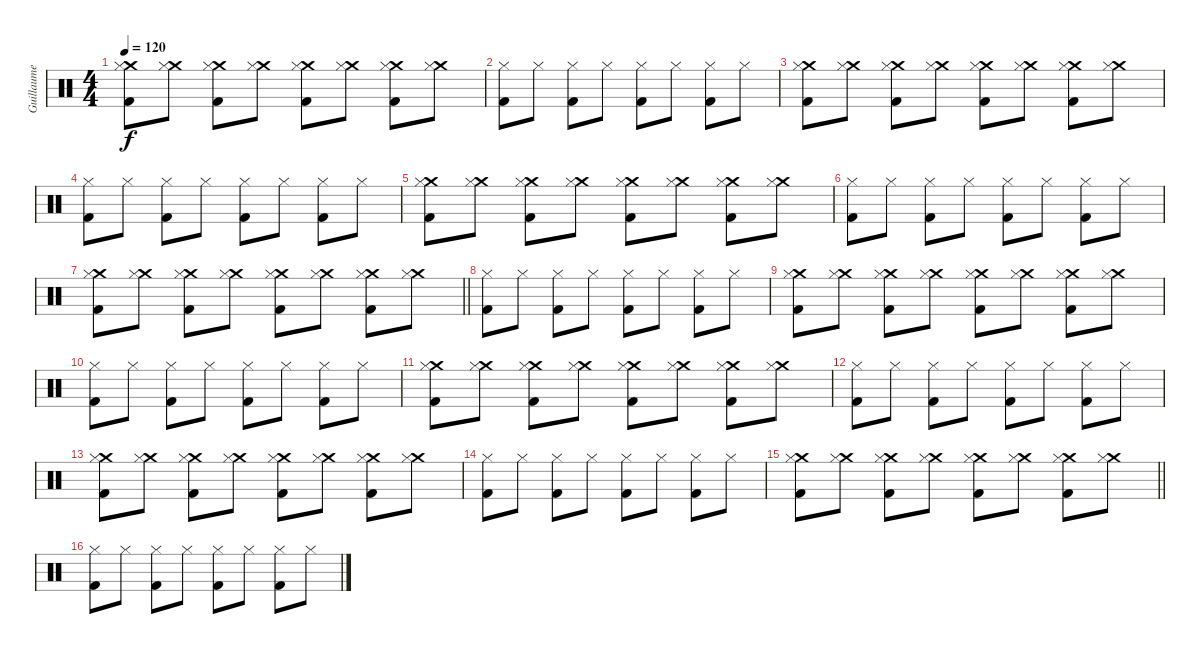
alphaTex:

\track ("Guillaume (batterie)" "Guillaume ") {instrument percussion}
\staff {score}
\articulation defaults
\ts (4 4)
\tempo 120
\clef neutral
\ks c
("Crash medium (hit)" "Hi-Hat (closed)" "Kick (hit) 2").8{dy f volume 9} ("Crash medium (hit)" "Hi-Hat (closed)").8 ("Crash medium (hit)" "Hi-Hat (closed)" "Kick (hit) 2").8{volume 11} ("Crash medium (hit)" "Hi-Hat (closed)").8 ("Crash medium (hit)" "Hi-Hat (closed)" "Kick (hit) 2").8{volume 12} ("Crash medium (hit)" "Hi-Hat (closed)").8 ("Crash medium (hit)" "Hi-Hat (closed)" "Kick (hit) 2").8{volume 15} ("Crash medium (hit)" "Hi-Hat (closed)").8 |
("Hi-Hat (closed)" "Kick (hit) 2").8{volume 9} "Hi-Hat (closed)".8 ("Hi-Hat (closed)" "Kick (hit) 2").8 "Hi-Hat (closed)".8 ("Hi-Hat (closed)" "Kick (hit) 2").8 "Hi-Hat (closed)".8 ("Hi-Hat (closed)" "Kick (hit) 2").8 "Hi-Hat (closed)".8 |
("Crash medium (hit)" "Hi-Hat (closed)" "Kick (hit) 2").8{volume 9} ("Crash medium (hit)" "Hi-Hat (closed)").8 ("Crash medium (hit)" "Hi-Hat (closed)" "Kick (hit) 2").8{volume 11} ("Crash medium (hit)" "Hi-Hat (closed)").8 ("Crash medium (hit)" "Hi-Hat (closed)" "Kick (hit) 2").8{volume 12} ("Crash medium (hit)" "Hi-Hat (closed)").8 ("Crash medium (hit)" "Hi-Hat (closed)" "Kick (hit) 2").8{volume 15} ("Crash medium (hit)" "Hi-Hat (closed)").8 |
("Hi-Hat (closed)" "Kick (hit) 2").8{volume 9} "Hi-Hat (closed)".8 ("Hi-Hat (closed)" "Kick (hit) 2").8 "Hi-Hat (closed)".8 ("Hi-Hat (closed)" "Kick (hit) 2").8 "Hi-Hat (closed)".8 ("Hi-Hat (closed)" "Kick (hit) 2").8 "Hi-Hat (closed)".8 |
("Crash medium (hit)" "Hi-Hat (closed)" "Kick (hit) 2").8{volume 9} ("Crash medium (hit)" "Hi-Hat (closed)").8 ("Crash medium (hit)" "Hi-Hat (closed)" "Kick (hit) 2").8{volume 11} ("Crash medium (hit)" "Hi-Hat (closed)").8 ("Crash medium (hit)" "Hi-Hat (closed)" "Kick (hit) 2").8{volume 12} ("Crash medium (hit)" "Hi-Hat (closed)").8 ("Crash medium (hit)" "Hi-Hat (closed)" "Kick (hit) 2").8{volume 15} ("Crash medium (hit)" "Hi-Hat (closed)").8 |
("Hi-Hat (closed)" "Kick (hit) 2").8{volume 9} "Hi-Hat (closed)".8 ("Hi-Hat (closed)" "Kick (hit) 2").8 "Hi-Hat (closed)".8 ("Hi-Hat (closed)" "Kick (hit) 2").8 "Hi-Hat (closed)".8 ("Hi-Hat (closed)" "Kick (hit) 2").8 "Hi-Hat (closed)".8 |
\barLineRight lightlight
("Crash medium (hit)" "Hi-Hat (closed)" "Kick (hit) 2").8{volume 9} ("Crash medium (hit)" "Hi-Hat (closed)").8 ("Crash medium (hit)" "Hi-Hat (closed)" "Kick (hit) 2").8{volume 11} ("Crash medium (hit)" "Hi-Hat (closed)").8 ("Crash medium (hit)" "Hi-Hat (closed)" "Kick (hit) 2").8{volume 12} ("Crash medium (hit)" "Hi-Hat (closed)").8 ("Crash medium (hit)" "Hi-Hat (closed)" "Kick (hit) 2").8{volume 15} ("Crash medium (hit)" "Hi-Hat (closed)").8 |
("Hi-Hat (closed)" "Kick (hit) 2").8{volume 9} "Hi-Hat (closed)".8 ("Hi-Hat (closed)" "Kick (hit) 2").8 "Hi-Hat (closed)".8 ("Hi-Hat (closed)" "Kick (hit) 2").8 "Hi-Hat (closed)".8 ("Hi-Hat (closed)" "Kick (hit) 2").8 "Hi-Hat (closed)".8 |
("Crash medium (hit)" "Hi-Hat (closed)" "Kick (hit) 2").8{volume 9} ("Crash medium (hit)" "Hi-Hat (closed)").8 ("Crash medium (hit)" "Hi-Hat (closed)" "Kick (hit) 2").8{volume 11} ("Crash medium (hit)" "Hi-Hat (closed)").8 ("Crash medium (hit)" "Hi-Hat (closed)" "Kick (hit) 2").8{volume 12} ("Crash medium (hit)" "Hi-Hat (closed)").8 ("Crash medium (hit)" "Hi-Hat (closed)" "Kick (hit) 2").8{volume 15} ("Crash medium (hit)" "Hi-Hat (closed)").8 |
("Hi-Hat (closed)" "Kick (hit) 2").8{volume 9} "Hi-Hat (closed)".8 ("Hi-Hat (closed)" "Kick (hit) 2").8 "Hi-Hat (closed)".8 ("Hi-Hat (closed)" "Kick (hit) 2").8 "Hi-Hat (closed)".8 ("Hi-Hat (closed)" "Kick (hit) 2").8 "Hi-Hat (closed)".8 |
("Crash medium (hit)" "Hi-Hat (closed)" "Kick (hit) 2").8{volume 9} ("Crash medium (hit)" "Hi-Hat (closed)").8 ("Crash medium (hit)" "Hi-Hat (closed)" "Kick (hit) 2").8{volume 11} ("Crash medium (hit)" "Hi-Hat (closed)").8 ("Crash medium (hit)" "Hi-Hat (closed)" "Kick (hit) 2").8{volume 12} ("Crash medium (hit)" "Hi-Hat (closed)").8 ("Crash medium (hit)" "Hi-Hat (closed)" "Kick (hit) 2").8{volume 15} ("Crash medium (hit)" "Hi-Hat (closed)").8 |
("Hi-Hat (closed)" "Kick (hit) 2").8{volume 9} "Hi-Hat (closed)".8 ("Hi-Hat (closed)" "Kick (hit) 2").8 "Hi-Hat (closed)".8 ("Hi-Hat (closed)" "Kick (hit) 2").8 "Hi-Hat (closed)".8 ("Hi-Hat (closed)" "Kick (hit) 2").8 "Hi-Hat (closed)".8 |
("Crash medium (hit)" "Hi-Hat (closed)" "Kick (hit) 2").8{volume 9} ("Crash medium (hit)" "Hi-Hat (closed)").8 ("Crash medium (hit)" "Hi-Hat (closed)" "Kick (hit) 2").8{volume 11} ("Crash medium (hit)" "Hi-Hat (closed)").8 ("Crash medium (hit)" "Hi-Hat (closed)" "Kick (hit) 2").8{volume 12} ("Crash medium (hit)" "Hi-Hat (closed)").8 ("Crash medium (hit)" "Hi-Hat (closed)" "Kick (hit) 2").8{volume 15} ("Crash medium (hit)" "Hi-Hat (closed)").8 |
("Hi-Hat (closed)" "Kick (hit) 2").8{volume 9} "Hi-Hat (closed)".8 ("Hi-Hat (closed)" "Kick (hit) 2").8 "Hi-Hat (closed)".8 ("Hi-Hat (closed)" "Kick (hit) 2").8 "Hi-Hat (closed)".8 ("Hi-Hat (closed)" "Kick (hit) 2").8 "Hi-Hat (closed)".8 |
\barLineRight lightlight
("Crash medium (hit)" "Hi-Hat (closed)" "Kick (hit) 2").8{volume 9} ("Crash medium (hit)" "Hi-Hat (closed)").8 ("Crash medium (hit)" "Hi-Hat (closed)" "Kick (hit) 2").8{volume 11} ("Crash medium (hit)" "Hi-Hat (closed)").8 ("Crash medium (hit)" "Hi-Hat (closed)" "Kick (hit) 2").8{volume 12} ("Crash medium (hit)" "Hi-Hat (closed)").8 ("Crash medium (hit)" "Hi-Hat (closed)" "Kick (hit) 2").8{volume 15} ("Crash medium (hit)" "Hi-Hat (closed)").8 |
("Hi-Hat (closed)" "Kick (hit) 2").8{volume 9} "Hi-Hat (closed)".8 ("Hi-Hat (closed)" "Kick (hit) 2").8 "Hi-Hat (closed)".8 ("Hi-Hat (closed)" "Kick (hit) 2").8 "Hi-Hat (closed)".8 ("Hi-Hat (closed)" "Kick (hit) 2").8 "Hi-Hat (closed)".8
